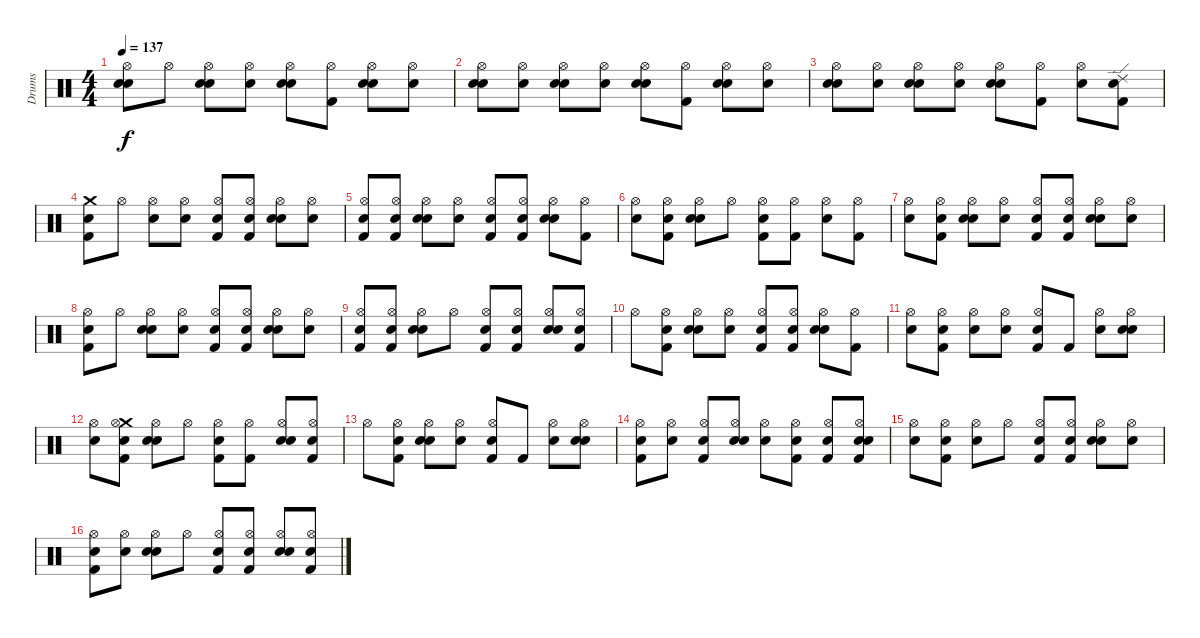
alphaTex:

\track ("Drums" "Drums") {instrument percussion}
\staff {score}
\articulation defaults
\ts (4 4)
\tempo 137
\clef neutral
\ks c
("Snare (hit)" "Hi-Hat (open)" "Electric Snare (hit)").8{dy f} "Hi-Hat (open)".8 ("Snare (hit)" "Electric Snare (hit)" "Hi-Hat (open)").8 ("Snare (hit)" "Hi-Hat (open)").8 ("Snare (hit)" "Hi-Hat (open)" "Electric Snare (hit)").8 ("Kick (hit) 2" "Hi-Hat (open)").8 ("Snare (hit)" "Electric Snare (hit)" "Hi-Hat (open)").8 ("Snare (hit)" "Hi-Hat (open)").8 |
("Snare (hit)" "Electric Snare (hit)" "Hi-Hat (open)").8 ("Snare (hit)" "Hi-Hat (open)").8 ("Snare (hit)" "Electric Snare (hit)" "Hi-Hat (open)").8 ("Snare (hit)" "Hi-Hat (open)").8 ("Snare (hit)" "Hi-Hat (open)" "Electric Snare (hit)").8 ("Kick (hit) 2" "Hi-Hat (open)").8 ("Snare (hit)" "Electric Snare (hit)" "Hi-Hat (open)").8 ("Snare (hit)" "Hi-Hat (open)").8 |
("Snare (hit)" "Electric Snare (hit)" "Hi-Hat (open)").8 ("Snare (hit)" "Hi-Hat (open)").8 ("Snare (hit)" "Electric Snare (hit)" "Hi-Hat (open)").8 ("Snare (hit)" "Hi-Hat (open)").8 ("Snare (hit)" "Hi-Hat (open)" "Electric Snare (hit)").8 ("Hi-Hat (open)" "Kick (hit) 2").8 ("Electric Snare (hit)" "Hi-Hat (open)").8 ("Snare (hit)" "Kick (hit) 2" "Ride (edge) 2").8 |
("Snare (hit)" "Crash medium (hit)" "Kick (hit) 2").8 "Hi-Hat (open)".8 ("Electric Snare (hit)" "Hi-Hat (open)").8 ("Snare (hit)" "Hi-Hat (open)").8 ("Snare (hit)" "Kick (hit) 2" "Hi-Hat (open)").8 ("Snare (hit)" "Kick (hit) 2" "Hi-Hat (open)").8 ("Snare (hit)" "Electric Snare (hit)" "Hi-Hat (open)").8 ("Snare (hit)" "Hi-Hat (open)").8 |
("Snare (hit)" "Kick (hit) 2" "Hi-Hat (open)").8 ("Snare (hit)" "Kick (hit) 2" "Hi-Hat (open)").8 ("Snare (hit)" "Electric Snare (hit)" "Hi-Hat (open)").8 ("Snare (hit)" "Hi-Hat (open)").8 ("Snare (hit)" "Kick (hit) 2" "Hi-Hat (open)").8 ("Snare (hit)" "Kick (hit) 2" "Hi-Hat (open)").8 ("Snare (hit)" "Hi-Hat (open)" "Electric Snare (hit)").8 ("Hi-Hat (open)" "Kick (hit) 2").8 |
("Snare (hit)" "Hi-Hat (open)").8 ("Snare (hit)" "Hi-Hat (open)" "Kick (hit) 2").8 ("Snare (hit)" "Hi-Hat (open)" "Electric Snare (hit)").8 "Hi-Hat (open)".8 ("Snare (hit)" "Hi-Hat (open)" "Kick (hit) 2").8 ("Hi-Hat (open)" "Kick (hit) 2").8 ("Hi-Hat (open)" "Electric Snare (hit)").8 ("Kick (hit) 2" "Hi-Hat (open)").8 |
("Snare (hit)" "Hi-Hat (open)").8 ("Snare (hit)" "Kick (hit) 2" "Hi-Hat (open)").8 ("Snare (hit)" "Electric Snare (hit)" "Hi-Hat (open)").8 ("Snare (hit)" "Hi-Hat (open)").8 ("Snare (hit)" "Kick (hit) 2" "Hi-Hat (open)").8 ("Snare (hit)" "Hi-Hat (open)" "Kick (hit) 2").8 ("Snare (hit)" "Electric Snare (hit)" "Hi-Hat (open)").8 ("Snare (hit)" "Hi-Hat (open)").8 |
("Snare (hit)" "Hi-Hat (open)" "Kick (hit) 2").8 "Hi-Hat (open)".8 ("Snare (hit)" "Electric Snare (hit)" "Hi-Hat (open)").8 ("Snare (hit)" "Hi-Hat (open)").8 ("Snare (hit)" "Kick (hit) 2" "Hi-Hat (open)").8 ("Snare (hit)" "Kick (hit) 2" "Hi-Hat (open)").8 ("Snare (hit)" "Electric Snare (hit)" "Hi-Hat (open)").8 ("Snare (hit)" "Hi-Hat (open)").8 |
("Snare (hit)" "Kick (hit) 2" "Hi-Hat (open)").8 ("Snare (hit)" "Kick (hit) 2" "Hi-Hat (open)").8 ("Snare (hit)" "Hi-Hat (open)" "Electric Snare (hit)").8 "Hi-Hat (open)".8 ("Snare (hit)" "Hi-Hat (open)" "Kick (hit) 2").8 ("Snare (hit)" "Kick (hit) 2" "Hi-Hat (open)").8 ("Snare (hit)" "Electric Snare (hit)" "Hi-Hat (open)").8 ("Snare (hit)" "Hi-Hat (open)" "Kick (hit) 2").8 |
"Hi-Hat (open)".8 ("Snare (hit)" "Hi-Hat (open)" "Kick (hit) 2").8 ("Snare (hit)" "Electric Snare (hit)" "Hi-Hat (open)").8 ("Snare (hit)" "Hi-Hat (open)").8 ("Snare (hit)" "Kick (hit) 2" "Hi-Hat (open)").8 ("Snare (hit)" "Kick (hit) 2" "Hi-Hat (open)").8 ("Snare (hit)" "Hi-Hat (open)" "Electric Snare (hit)").8 ("Kick (hit) 2" "Hi-Hat (open)").8 |
("Snare (hit)" "Hi-Hat (open)").8 ("Snare (hit)" "Hi-Hat (open)" "Kick (hit) 2").8 ("Electric Snare (hit)" "Hi-Hat (open)").8 ("Snare (hit)" "Hi-Hat (open)").8 ("Snare (hit)" "Hi-Hat (open)" "Kick (hit) 2").8 "Kick (hit) 2".8 ("Snare (hit)" "Hi-Hat (open)").8 ("Snare (hit)" "Electric Snare (hit)" "Hi-Hat (open)").8 |
("Snare (hit)" "Hi-Hat (open)").8 ("Snare (hit)" "Crash medium (hit)" "Kick (hit) 2" "Hi-Hat (open)").8 ("Snare (hit)" "Hi-Hat (open)" "Electric Snare (hit)").8 "Hi-Hat (open)".8 ("Snare (hit)" "Hi-Hat (open)" "Kick (hit) 2").8 ("Kick (hit) 2" "Hi-Hat (open)").8 ("Snare (hit)" "Electric Snare (hit)" "Hi-Hat (open)").8 ("Snare (hit)" "Hi-Hat (open)" "Kick (hit) 2").8 |
"Hi-Hat (open)".8 ("Snare (hit)" "Kick (hit) 2" "Hi-Hat (open)").8 ("Snare (hit)" "Electric Snare (hit)" "Hi-Hat (open)").8 ("Snare (hit)" "Hi-Hat (open)").8 ("Snare (hit)" "Hi-Hat (open)" "Kick (hit) 2").8 "Kick (hit) 2".8 ("Snare (hit)" "Hi-Hat (open)").8 ("Snare (hit)" "Electric Snare (hit)" "Hi-Hat (open)").8 |
("Snare (hit)" "Hi-Hat (open)" "Kick (hit) 2").8 ("Snare (hit)" "Hi-Hat (open)").8 ("Snare (hit)" "Kick (hit) 2" "Hi-Hat (open)").8 ("Snare (hit)" "Electric Snare (hit)" "Hi-Hat (open)").8 ("Snare (hit)" "Hi-Hat (open)").8 ("Snare (hit)" "Kick (hit) 2" "Hi-Hat (open)").8 ("Snare (hit)" "Kick (hit) 2" "Hi-Hat (open)").8 ("Snare (hit)" "Hi-Hat (open)" "Electric Snare (hit)" "Kick (hit) 2").8 |
("Snare (hit)" "Hi-Hat (open)").8 ("Snare (hit)" "Hi-Hat (open)" "Kick (hit) 2").8 ("Hi-Hat (open)" "Electric Snare (hit)").8 "Hi-Hat (open)".8 ("Snare (hit)" "Kick (hit) 2" "Hi-Hat (open)").8 ("Snare (hit)" "Kick (hit) 2" "Hi-Hat (open)").8 ("Snare (hit)" "Electric Snare (hit)" "Hi-Hat (open)").8 ("Snare (hit)" "Hi-Hat (open)").8 |
("Snare (hit)" "Kick (hit) 2" "Hi-Hat (open)").8 ("Snare (hit)" "Hi-Hat (open)").8 ("Snare (hit)" "Hi-Hat (open)" "Electric Snare (hit)").8 "Hi-Hat (open)".8 ("Snare (hit)" "Kick (hit) 2" "Hi-Hat (open)").8 ("Snare (hit)" "Kick (hit) 2" "Hi-Hat (open)").8 ("Snare (hit)" "Hi-Hat (open)" "Electric Snare (hit)").8 ("Snare (hit)" "Kick (hit) 2" "Hi-Hat (open)").8
